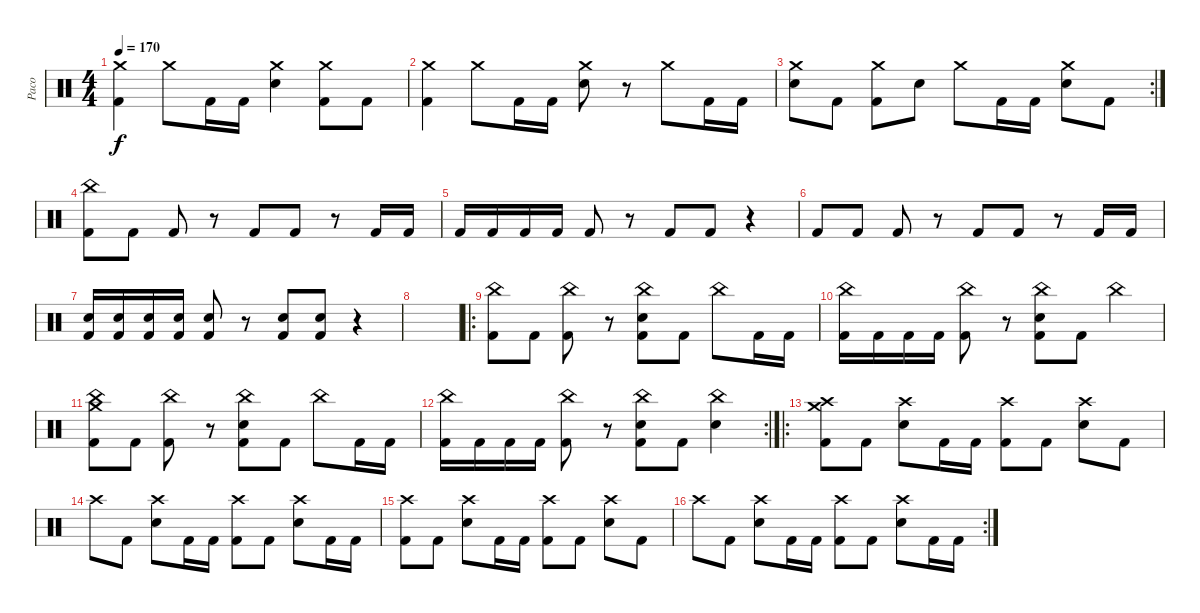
\track ("Paco" "Paco") {instrument percussion}
\staff {score}
\articulation defaults
\ts (4 4)
\tempo 170
\clef neutral
\ks c
("Crash medium (hit)" "Kick (hit) 2").4{dy f} "Crash medium (hit)".8 "Kick (hit) 2".16 "Kick (hit) 2".16 ("Crash medium (hit)" "Electric Snare (hit)").4 ("Crash medium (hit)" "Kick (hit) 2").8 "Kick (hit) 2".8 |
("Crash medium (hit)" "Kick (hit) 2").4 "Crash medium (hit)".8 "Kick (hit) 2".16 "Kick (hit) 2".16 ("Crash medium (hit)" "Electric Snare (hit)").8 r.8 "Crash medium (hit)".8 "Kick (hit) 2".16 "Kick (hit) 2".16 |
\rc 2
("Crash medium (hit)" "Electric Snare (hit)").8 "Kick (hit) 2".8 ("Crash medium (hit)" "Kick (hit) 2").8 "Electric Snare (hit)".8 "Crash medium (hit)".8 "Kick (hit) 2".16 "Kick (hit) 2".16 ("Crash medium (hit)" "Electric Snare (hit)").8 "Kick (hit) 2".8 |
("China (hit)" "Kick (hit) 2").8 "Kick (hit) 2".8 "Kick (hit) 2".8 r.8 "Kick (hit) 2".8 "Kick (hit) 2".8 r.8 "Kick (hit) 2".16 "Kick (hit) 2".16 |
"Kick (hit) 2".16 "Kick (hit) 2".16 "Kick (hit) 2".16 "Kick (hit) 2".16 "Kick (hit) 2".8 r.8 "Kick (hit) 2".8 "Kick (hit) 2".8 r.4 |
"Kick (hit) 2".8 "Kick (hit) 2".8 "Kick (hit) 2".8 r.8 "Kick (hit) 2".8 "Kick (hit) 2".8 r.8 "Kick (hit) 2".16 "Kick (hit) 2".16 |
("Electric Snare (hit)" "Kick (hit) 2").16 ("Electric Snare (hit)" "Kick (hit) 2").16 ("Electric Snare (hit)" "Kick (hit) 2").16 ("Electric Snare (hit)" "Kick (hit) 2").16 ("Electric Snare (hit)" "Kick (hit) 2").8 r.8 ("Electric Snare (hit)" "Kick (hit) 2").8 ("Electric Snare (hit)" "Kick (hit) 2").8 r.4 |
|
\ro
("China (hit)" "Kick (hit) 2").8 "Kick (hit) 2".8 ("China (hit)" "Kick (hit) 2").8 r.8 ("China (hit)" "Electric Snare (hit)" "Kick (hit) 2").8 "Kick (hit) 2".8 "China (hit)".8 "Kick (hit) 2".16 "Kick (hit) 2".16 |
("China (hit)" "Kick (hit) 2").16 "Kick (hit) 2".16 "Kick (hit) 2".16 "Kick (hit) 2".16 ("China (hit)" "Kick (hit) 2").8 r.8 ("China (hit)" "Electric Snare (hit)" "Kick (hit) 2").8 "Kick (hit) 2".8 "China (hit)".4 |
("Crash medium (hit)" "China (hit)" "Kick (hit) 2").8 "Kick (hit) 2".8 ("China (hit)" "Kick (hit) 2").8 r.8 ("China (hit)" "Electric Snare (hit)" "Kick (hit) 2").8 "Kick (hit) 2".8 "China (hit)".8 "Kick (hit) 2".16 "Kick (hit) 2".16 |
\rc 2
("China (hit)" "Kick (hit) 2").16 "Kick (hit) 2".16 "Kick (hit) 2".16 "Kick (hit) 2".16 ("China (hit)" "Kick (hit) 2").8 r.8 ("China (hit)" "Electric Snare (hit)" "Kick (hit) 2").8 "Kick (hit) 2".8 ("China (hit)" "Electric Snare (hit)").4 |
\ro
("Crash medium (hit)" "Crash high (hit)" "Kick (hit) 2").8 "Kick (hit) 2".8 ("Crash high (hit)" "Electric Snare (hit)").8 "Kick (hit) 2".16 "Kick (hit) 2".16 ("Crash high (hit)" "Kick (hit) 2").8 "Kick (hit) 2".8 ("Crash high (hit)" "Electric Snare (hit)").8 "Kick (hit) 2".8 |
"Crash high (hit)".8 "Kick (hit) 2".8 ("Crash high (hit)" "Electric Snare (hit)").8 "Kick (hit) 2".16 "Kick (hit) 2".16 ("Crash high (hit)" "Kick (hit) 2").8 "Kick (hit) 2".8 ("Crash high (hit)" "Electric Snare (hit)").8 "Kick (hit) 2".16 "Kick (hit) 2".16 |
("Crash high (hit)" "Kick (hit) 2").8 "Kick (hit) 2".8 ("Crash high (hit)" "Electric Snare (hit)").8 "Kick (hit) 2".16 "Kick (hit) 2".16 ("Crash high (hit)" "Kick (hit) 2").8 "Kick (hit) 2".8 ("Crash high (hit)" "Electric Snare (hit)").8 "Kick (hit) 2".8 |
\rc 2 "Crash high (hit)".8 "Kick (hit) 2".8
("Crash high (hit)" "Electric Snare (hit)").8 "Kick (hit) 2".16 "Kick (hit) 2".16 ("Crash high (hit)" "Kick (hit) 2").8 "Kick (hit) 2".8 ("Crash high (hit)" "Electric Snare (hit)").8 "Kick (hit) 2".16 "Kick (hit) 2".16
